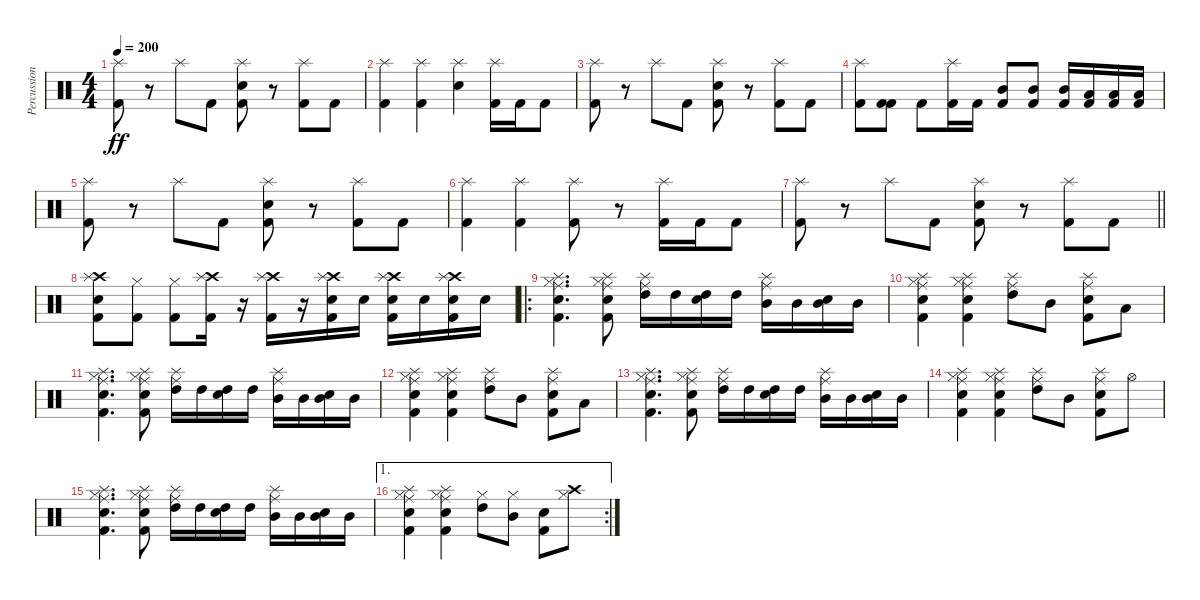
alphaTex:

\track ("Percussion" "Percussion") {instrument percussion}
\staff {score}
\articulation defaults
\ts (4 4)
\tempo 200
\clef neutral
\ks c
("Splash (hit)" "Kick (hit) 2").8{dy ff} r.8 "Splash (hit)".8 "Kick (hit) 2".8 ("Splash (hit)" "Electric Snare (hit)" "Kick (hit) 2").8 r.8 ("Splash (hit)" "Kick (hit) 2").8 "Kick (hit) 2".8 |
("Splash (hit)" "Kick (hit) 2").4 ("Splash (hit)" "Kick (hit) 2").4 ("Splash (hit)" "Electric Snare (hit)").4 ("Splash (hit)" "Kick (hit) 2").16 "Kick (hit) 2".16 "Kick (hit) 2".8 |
("Splash (hit)" "Kick (hit) 2").8 r.8 "Splash (hit)".8 "Kick (hit) 2".8 ("Splash (hit)" "Electric Snare (hit)" "Kick (hit) 2").8 r.8 ("Splash (hit)" "Kick (hit) 2").8 "Kick (hit) 2".8 |
("Splash (hit)" "Kick (hit) 2").8 ("Kick (hit) 2" "Kick (hit) 2").8 "Kick (hit) 2".8 ("Splash (hit)" "Kick (hit) 2").16 "Kick (hit) 2".16 ("Mid Tom (hit)" "Kick (hit) 2").8 ("Mid Tom (hit)" "Kick (hit) 2").8 ("Mid Tom (hit)" "Kick (hit) 2").16 ("Low Tom (hit)" "Kick (hit) 2").16 ("Low Tom (hit)" "Kick (hit) 2").16 ("Low Tom (hit)" "Kick (hit) 2").16 |
("Splash (hit)" "Kick (hit) 2").8 r.8 "Splash (hit)".8 "Kick (hit) 2".8 ("Splash (hit)" "Electric Snare (hit)" "Kick (hit) 2").8 r.8 ("Splash (hit)" "Kick (hit) 2").8 "Kick (hit) 2".8 |
("Splash (hit)" "Kick (hit) 2").4 ("Splash (hit)" "Kick (hit) 2").4 ("Splash (hit)" "Kick (hit) 2").8 r.8 ("Splash (hit)" "Kick (hit) 2").16 "Kick (hit) 2".16 "Kick (hit) 2".8 |
\barLineRight lightlight
("Splash (hit)" "Kick (hit) 2").8 r.8 "Splash (hit)".8 "Kick (hit) 2".8 ("Splash (hit)" "Electric Snare (hit)" "Kick (hit) 2").8 r.8 ("Splash (hit)" "Kick (hit) 2").8 "Kick (hit) 2".8 |
("Crash high (hit)" "Splash (hit)" "Electric Snare (hit)" "Kick (hit) 2").8 ("Hi-Hat (closed)" "Kick (hit) 2").8 ("Hi-Hat (closed)" "Kick (hit) 2").8 ("Crash high (hit)" "Splash (hit)" "Kick (hit) 2").16 r.16 ("Crash high (hit)" "Splash (hit)" "Kick (hit) 2").16 r.16 ("Crash high (hit)" "Splash (hit)" "Electric Snare (hit)" "Kick (hit) 2").16 "Electric Snare (hit)".16 ("Crash high (hit)" "Splash (hit)" "Electric Snare (hit)" "Kick (hit) 2").16 "Electric Snare (hit)".16 ("Crash high (hit)" "Splash (hit)" "Electric Snare (hit)" "Kick (hit) 2").16 "Electric Snare (hit)".16 |
\ro
("Splash (hit)" "Ride (middle)" "Hi-Hat (closed)" "Electric Snare (hit)" "Kick (hit) 2").4{d} ("Splash (hit)" "Ride (middle)" "Hi-Hat (closed)" "Electric Snare (hit)" "Kick (hit) 2").8 ("Splash (hit)" "Ride (middle)" "High Tom (hit)").16 "High Tom (hit)".16 ("Electric Snare (hit)" "High Tom (hit)").16 "High Tom (hit)".16 ("Splash (hit)" "Ride (middle)" "Mid Tom (hit)").16 "Mid Tom (hit)".16 ("Electric Snare (hit)" "Mid Tom (hit)").16 "Mid Tom (hit)".16 |
("Splash (hit)" "Ride (middle)" "Hi-Hat (closed)" "Electric Snare (hit)" "Kick (hit) 2").4 ("Splash (hit)" "Ride (middle)" "Hi-Hat (closed)" "Electric Snare (hit)" "Kick (hit) 2").4 ("Splash (hit)" "Ride (middle)" "High Tom (hit)").8 "Mid Tom (hit)".8 ("Splash (hit)" "Ride (middle)" "Electric Snare (hit)" "Kick (hit) 2").8 "Low Tom (hit)".8 |
("Splash (hit)" "Ride (middle)" "Hi-Hat (closed)" "Electric Snare (hit)" "Kick (hit) 2").4{d} ("Splash (hit)" "Ride (middle)" "Hi-Hat (closed)" "Electric Snare (hit)" "Kick (hit) 2").8 ("Splash (hit)" "Ride (middle)" "High Tom (hit)").16 "High Tom (hit)".16 ("Electric Snare (hit)" "High Tom (hit)").16 "High Tom (hit)".16 ("Splash (hit)" "Ride (middle)" "Mid Tom (hit)").16 "Mid Tom (hit)".16 ("Electric Snare (hit)" "Mid Tom (hit)").16 "Mid Tom (hit)".16 |
("Hi-Hat (closed)" "Splash (hit)" "Ride (middle)" "Electric Snare (hit)" "Kick (hit) 2").4 ("Hi-Hat (closed)" "Splash (hit)" "Ride (middle)" "Electric Snare (hit)" "Kick (hit) 2").4 ("Splash (hit)" "Ride (middle)" "High Tom (hit)").8 "Mid Tom (hit)".8 ("Splash (hit)" "Ride (middle)" "Electric Snare (hit)" "Kick (hit) 2").8 "Low Tom (hit)".8 |
("Splash (hit)" "Ride (middle)" "Hi-Hat (closed)" "Electric Snare (hit)" "Kick (hit) 2").4{d} ("Splash (hit)" "Ride (middle)" "Hi-Hat (closed)" "Electric Snare (hit)" "Kick (hit) 2").8 ("Splash (hit)" "Ride (middle)" "High Tom (hit)").16 "High Tom (hit)".16 ("Electric Snare (hit)" "High Tom (hit)").16 "High Tom (hit)".16 ("Splash (hit)" "Ride (middle)" "Mid Tom (hit)").16 "Mid Tom (hit)".16 ("Electric Snare (hit)" "Mid Tom (hit)").16 "Mid Tom (hit)".16 |
("Splash (hit)" "Ride (middle)" "Hi-Hat (closed)" "Electric Snare (hit)" "Kick (hit) 2").4 ("Splash (hit)" "Ride (middle)" "Hi-Hat (closed)" "Electric Snare (hit)" "Kick (hit) 2").4 ("Splash (hit)" "Ride (middle)" "High Tom (hit)").8 "Mid Tom (hit)".8 ("Splash (hit)" "Ride (middle)" "Electric Snare (hit)" "Kick (hit) 2").8 "Hi-Hat (open)".8 |
("Splash (hit)" "Ride (middle)" "Hi-Hat (closed)" "Electric Snare (hit)" "Kick (hit) 2").4{d} ("Splash (hit)" "Ride (middle)" "Hi-Hat (closed)" "Electric Snare (hit)" "Kick (hit) 2").8 ("Splash (hit)" "Ride (middle)" "High Tom (hit)").16 "High Tom (hit)".16 ("Electric Snare (hit)" "High Tom (hit)").16 "High Tom (hit)".16 ("Splash (hit)" "Ride (middle)" "Mid Tom (hit)").16 "Mid Tom (hit)".16 ("Electric Snare (hit)" "Mid Tom (hit)").16 "Mid Tom (hit)".16 |
\ae 1
\rc 2
("Splash (hit)" "Ride (middle)" "Hi-Hat (closed)" "Electric Snare (hit)" "Kick (hit) 2").4 ("Splash (hit)" "Ride (middle)" "Hi-Hat (closed)" "Electric Snare (hit)" "Kick (hit) 2").4 ("Hi-Hat (closed)" "High Tom (hit)").8 ("Hi-Hat (closed)" "Mid Tom (hit)").8 ("Electric Snare (hit)" "Kick (hit) 2").8 ("Crash high (hit)" "Hi-Hat (closed)").8
